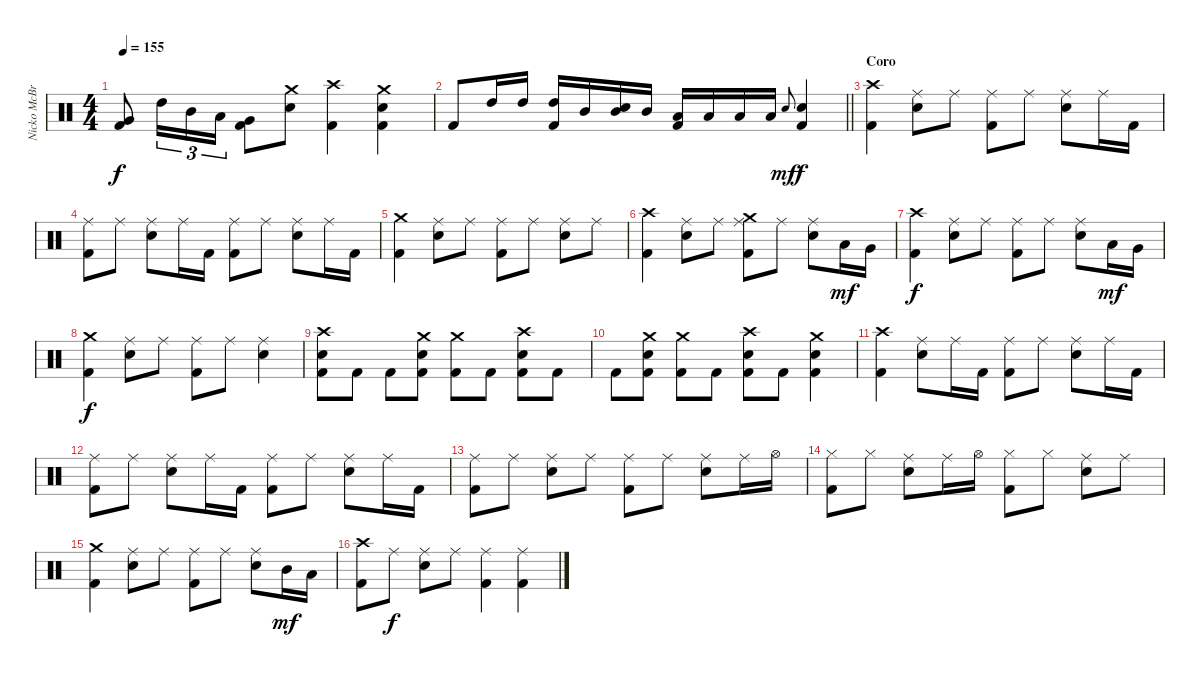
\track ("Nicko McBrain" "Nicko McBr") {instrument percussion}
\staff {score}
\articulation defaults
\ts (4 4)
\tempo 155
\clef neutral
\ks c
("Very Low Tom (hit)" "Kick (hit) 2").8{dy f} "High Tom (hit)".16{tu (3 2)} "Mid Tom (hit)".16{tu (3 2)} "Low Tom (hit)".16{tu (3 2)} ("Very Low Tom (hit)" "Kick (hit) 2").8 ("Snare (hit) 2" "Crash medium (hit)").8 ("Crash high (hit)" "Kick (hit) 2").4 ("Snare (hit) 2" "Crash medium (hit)" "Kick (hit) 2").4 |
\barLineRight lightlight "Kick (hit) 2".8 "High Tom (hit)".16 "High Tom (hit)".16
("High Tom (hit)" "Kick (hit) 2").16 "Mid Tom (hit)".16 ("Snare (hit) 2" "Mid Tom (hit)").16 "Mid Tom (hit)".16 ("Low Tom (hit)" "Kick (hit) 2").16 "Low Tom (hit)".16 "Low Tom (hit)".16 "Low Tom (hit)".16 "Snare (hit) 2".8{gr onbeat dy mf} ("Snare (hit) 2" "Kick (hit) 2").4{dy f} |
\section ("" "Coro")
("Crash high (hit)" "Kick (hit) 2").4 ("Ride (middle)" "Snare (hit) 2").8 "Ride (middle)".8 ("Ride (middle)" "Kick (hit) 2").8 "Ride (middle)".8 ("Ride (middle)" "Snare (hit) 2").8 "Ride (middle)".16 "Kick (hit) 2".16 |
("Ride (middle)" "Kick (hit) 2").8 "Ride (middle)".8 ("Ride (middle)" "Snare (hit) 2").8 "Ride (middle)".16 "Kick (hit) 2".16 ("Ride (middle)" "Kick (hit) 2").8 "Ride (middle)".8 ("Ride (middle)" "Snare (hit) 2").8 "Ride (middle)".16 "Kick (hit) 2".16 |
("Crash medium (hit)" "Kick (hit) 2").4 ("Ride (middle)" "Snare (hit) 2").8 "Ride (middle)".8 ("Ride (middle)" "Kick (hit) 2").8 "Ride (middle)".8 ("Ride (middle)" "Snare (hit) 2").8 "Ride (middle)".8 |
("Crash high (hit)" "Kick (hit) 2").4 ("Ride (middle)" "Snare (hit) 2").8 "Ride (middle)".8 ("Ride (middle)" "Crash medium (hit)" "Kick (hit) 2").8 "Ride (middle)".8 ("Ride (middle)" "Snare (hit) 2").8 "Low Tom (hit)".16{dy mf} "Very Low Tom (hit)".16 |
("Crash high (hit)" "Kick (hit) 2").4{dy f} ("Ride (middle)" "Snare (hit) 2").8 "Ride (middle)".8 ("Ride (middle)" "Kick (hit) 2").8 "Ride (middle)".8 ("Ride (middle)" "Snare (hit) 2").8 "Low Tom (hit)".16{dy mf} "Very Low Tom (hit)".16 |
("Crash medium (hit)" "Kick (hit) 2").4{dy f} ("Ride (middle)" "Snare (hit) 2").8 "Ride (middle)".8 ("Ride (middle)" "Kick (hit) 2").8 "Ride (middle)".8 ("Ride (middle)" "Snare (hit) 2").4 |
("Snare (hit) 2" "Crash high (hit)" "Kick (hit) 2").8 "Kick (hit) 2".8 "Kick (hit) 2".8 ("Snare (hit) 2" "Crash medium (hit)" "Kick (hit) 2").8 ("Crash medium (hit)" "Kick (hit) 2").8 "Kick (hit) 2".8 ("Snare (hit) 2" "Crash high (hit)" "Kick (hit) 2").8 "Kick (hit) 2".8 |
"Kick (hit) 2".8 ("Snare (hit) 2" "Crash medium (hit)" "Kick (hit) 2").8 ("Crash medium (hit)" "Kick (hit) 2").8 "Kick (hit) 2".8 ("Snare (hit) 2" "Crash high (hit)" "Kick (hit) 2").8 "Kick (hit) 2".8 ("Snare (hit) 2" "Crash medium (hit)" "Kick (hit) 2").4 |
("Crash high (hit)" "Kick (hit) 2").4 ("Ride (middle)" "Snare (hit) 2").8 "Ride (middle)".16 "Kick (hit) 2".16 ("Ride (middle)" "Kick (hit) 2").8 "Ride (middle)".8 ("Ride (middle)" "Snare (hit) 2").8 "Ride (middle)".16 "Kick (hit) 2".16 |
("Ride (middle)" "Kick (hit) 2").8 "Ride (middle)".8 ("Ride (middle)" "Snare (hit) 2").8 "Ride (middle)".16 "Kick (hit) 2".16 ("Ride (middle)" "Kick (hit) 2").8 "Ride (middle)".8 ("Ride (middle)" "Snare (hit) 2").8 "Ride (middle)".16 "Kick (hit) 2".16 |
("Ride (middle)" "Kick (hit) 2").8 "Ride (middle)".8 ("Ride (middle)" "Snare (hit) 2").8 "Ride (middle)".8 ("Ride (middle)" "Kick (hit) 2").8 "Ride (middle)".8 ("Ride (middle)" "Snare (hit) 2").8 "Ride (middle)".16 "Hi-Hat (open)".16 |
("Hi-Hat (closed)" "Kick (hit) 2").8 "Hi-Hat (closed)".8 ("Ride (middle)" "Snare (hit) 2").8 "Ride (middle)".16 "Hi-Hat (open)".16 ("Hi-Hat (closed)" "Kick (hit) 2").8 "Hi-Hat (closed)".8 ("Ride (middle)" "Snare (hit) 2").8 "Ride (middle)".8 |
("Crash medium (hit)" "Kick (hit) 2").4 ("Ride (middle)" "Snare (hit) 2").8 "Ride (middle)".8 ("Ride (middle)" "Kick (hit) 2").8 "Ride (middle)".8 ("Ride (middle)" "Snare (hit) 2").8 "Mid Tom (hit)".16{dy mf} "Low Tom (hit)".16 |
("Crash high (hit)" "Kick (hit) 2").8 "Ride (middle)".8{dy f} ("Ride (middle)" "Snare (hit) 2").8 "Ride (middle)".8 ("Ride (middle)" "Kick (hit) 2").4 ("Ride (middle)" "Kick (hit) 2").4
